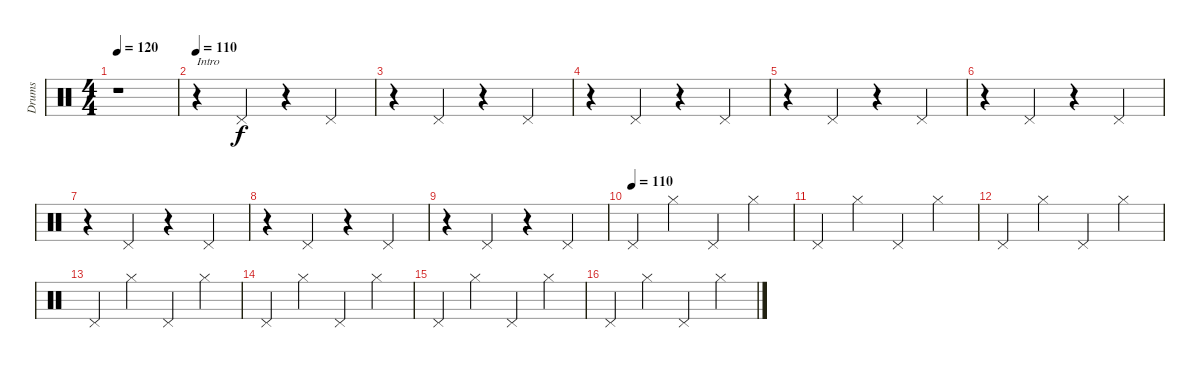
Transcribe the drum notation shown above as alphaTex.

\track ("Drums" "Drums") {instrument percussion}
\staff {score}
\articulation defaults
\ts (4 4)
\tempo 120
\clef neutral
\ks c
r.1{dy f} |
\tempo 110
r.4{txt "Intro"} "Pedal Hi-Hat (hit)".4 r.4 "Pedal Hi-Hat (hit)".4 |
r.4 "Pedal Hi-Hat (hit)".4 r.4 "Pedal Hi-Hat (hit)".4 |
r.4 "Pedal Hi-Hat (hit)".4 r.4 "Pedal Hi-Hat (hit)".4 |
r.4 "Pedal Hi-Hat (hit)".4 r.4 "Pedal Hi-Hat (hit)".4 |
r.4 "Pedal Hi-Hat (hit)".4 r.4 "Pedal Hi-Hat (hit)".4 |
r.4 "Pedal Hi-Hat (hit)".4 r.4 "Pedal Hi-Hat (hit)".4 |
r.4 "Pedal Hi-Hat (hit)".4 r.4 "Pedal Hi-Hat (hit)".4 |
r.4 "Pedal Hi-Hat (hit)".4 r.4 "Pedal Hi-Hat (hit)".4 |
\tempo (110)
"Pedal Hi-Hat (hit)".4 "Hi-Hat (closed)".4 "Pedal Hi-Hat (hit)".4 "Hi-Hat (closed)".4 |
"Pedal Hi-Hat (hit)".4 "Hi-Hat (closed)".4 "Pedal Hi-Hat (hit)".4 "Hi-Hat (closed)".4 |
"Pedal Hi-Hat (hit)".4 "Hi-Hat (closed)".4 "Pedal Hi-Hat (hit)".4 "Hi-Hat (closed)".4 |
"Pedal Hi-Hat (hit)".4 "Hi-Hat (closed)".4 "Pedal Hi-Hat (hit)".4 "Hi-Hat (closed)".4 |
"Pedal Hi-Hat (hit)".4 "Hi-Hat (closed)".4 "Pedal Hi-Hat (hit)".4 "Hi-Hat (closed)".4 |
"Pedal Hi-Hat (hit)".4 "Hi-Hat (closed)".4 "Pedal Hi-Hat (hit)".4 "Hi-Hat (closed)".4 |
"Pedal Hi-Hat (hit)".4 "Hi-Hat (closed)".4 "Pedal Hi-Hat (hit)".4 "Hi-Hat (closed)".4
